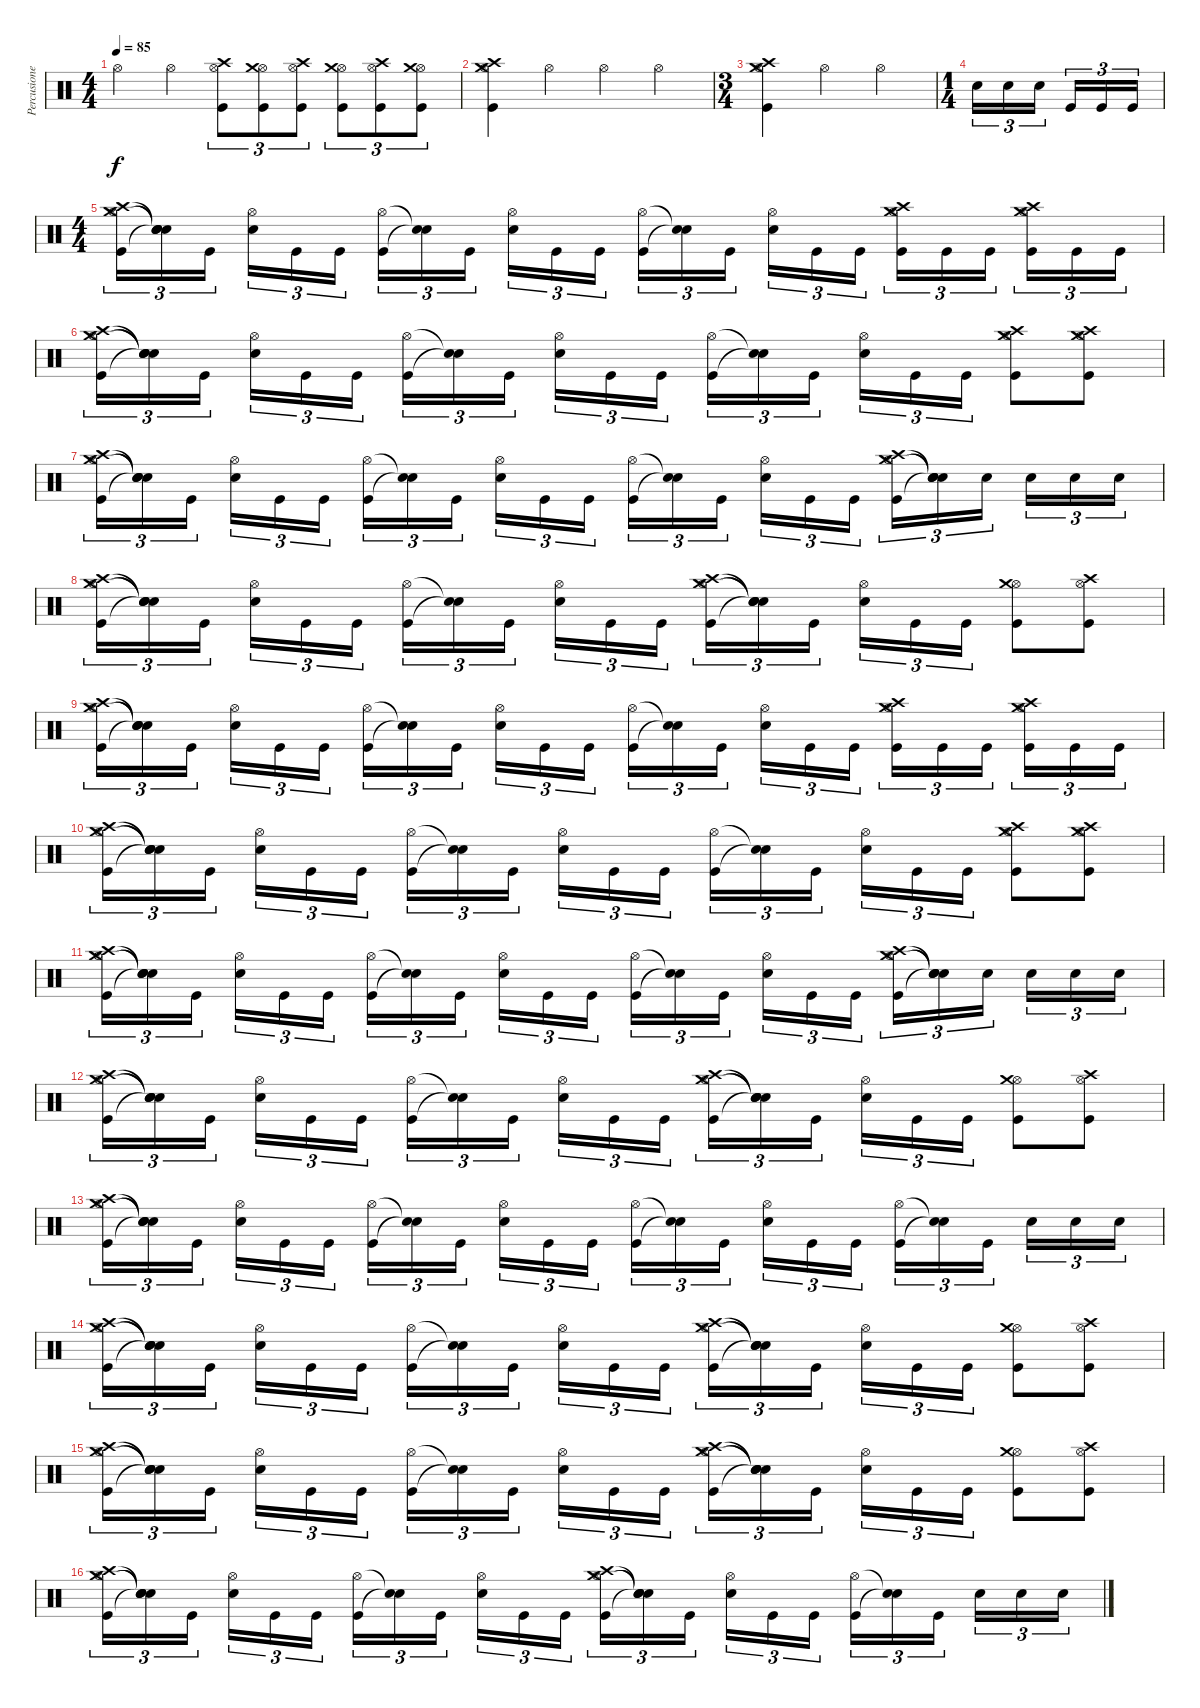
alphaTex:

\track ("Percusiones" "Percusione") {instrument percussion}
\staff {score}
\articulation defaults
\ts (4 4)
\tempo 85
\clef neutral
\ks c "Hi-Hat (open)".4{dy f} "Hi-Hat (open)".4
("Hi-Hat (open)" "Crash high (hit)" "Kick (hit)").8{tu (3 2)} ("Hi-Hat (open)" "Crash medium (hit)" "Kick (hit)").8{tu (3 2)} ("Hi-Hat (open)" "Crash high (hit)" "Kick (hit)").8{tu (3 2)} ("Hi-Hat (open)" "Crash medium (hit)" "Kick (hit)").8{tu (3 2)} ("Hi-Hat (open)" "Crash high (hit)" "Kick (hit)").8{tu (3 2)} ("Hi-Hat (open)" "Crash medium (hit)" "Kick (hit)").8{tu (3 2)} |
("Hi-Hat (open)" "Crash medium (hit)" "Crash high (hit)" "Kick (hit)").4 "Hi-Hat (open)".4 "Hi-Hat (open)".4 "Hi-Hat (open)".4 |
\ts (3 4)
("Hi-Hat (open)" "Crash medium (hit)" "Crash high (hit)" "Kick (hit)").4 "Hi-Hat (open)".4 "Hi-Hat (open)".4 |
\ts (1 4)
"Electric Snare (hit)".16{tu (3 2)} "Electric Snare (hit)".16{tu (3 2)} "Electric Snare (hit)".16{tu (3 2)} "Kick (hit)".16{tu (3 2)} "Kick (hit)".16{tu (3 2)} "Kick (hit)".16{tu (3 2)} |
\ts (4 4)
("Hi-Hat (open)" "Crash high (hit)" "Crash medium (hit)" "Kick (hit)").16{tu (3 2)} ("Snare (hit)"{t} "Snare (hit)"{t} "Snare (hit)"{t} "Snare (hit)"{t}).16{tu (3 2)} "Kick (hit)".16{tu (3 2)} ("Hi-Hat (open)" "Electric Snare (hit)").16{tu (3 2)} "Kick (hit)".16{tu (3 2)} "Kick (hit)".16{tu (3 2)} ("Hi-Hat (open)" "Kick (hit)").16{tu (3 2)} ("Snare (hit)"{t} "Snare (hit)"{t}).16{tu (3 2)} "Kick (hit)".16{tu (3 2)} ("Hi-Hat (open)" "Electric Snare (hit)").16{tu (3 2)} "Kick (hit)".16{tu (3 2)} "Kick (hit)".16{tu (3 2)} ("Hi-Hat (open)" "Kick (hit)").16{tu (3 2)} ("Snare (hit)"{t} "Snare (hit)"{t}).16{tu (3 2)} "Kick (hit)".16{tu (3 2)} ("Hi-Hat (open)" "Electric Snare (hit)").16{tu (3 2)} "Kick (hit)".16{tu (3 2)} "Kick (hit)".16{tu (3 2)} ("Hi-Hat (open)" "Crash medium (hit)" "Crash high (hit)" "Kick (hit)").16{tu (3 2)} "Kick (hit)".16{tu (3 2)} "Kick (hit)".16{tu (3 2)} ("Hi-Hat (open)" "Crash high (hit)" "Crash medium (hit)" "Kick (hit)").16{tu (3 2)} "Kick (hit)".16{tu (3 2)} "Kick (hit)".16{tu (3 2)} |
("Hi-Hat (open)" "Crash high (hit)" "Crash medium (hit)" "Kick (hit)").16{tu (3 2)} ("Snare (hit)"{t} "Snare (hit)"{t} "Snare (hit)"{t} "Snare (hit)"{t}).16{tu (3 2)} "Kick (hit)".16{tu (3 2)} ("Hi-Hat (open)" "Electric Snare (hit)").16{tu (3 2)} "Kick (hit)".16{tu (3 2)} "Kick (hit)".16{tu (3 2)} ("Hi-Hat (open)" "Kick (hit)").16{tu (3 2)} ("Snare (hit)"{t} "Snare (hit)"{t}).16{tu (3 2)} "Kick (hit)".16{tu (3 2)} ("Hi-Hat (open)" "Electric Snare (hit)").16{tu (3 2)} "Kick (hit)".16{tu (3 2)} "Kick (hit)".16{tu (3 2)} ("Hi-Hat (open)" "Kick (hit)").16{tu (3 2)} ("Snare (hit)"{t} "Snare (hit)"{t}).16{tu (3 2)} "Kick (hit)".16{tu (3 2)} ("Hi-Hat (open)" "Electric Snare (hit)").16{tu (3 2)} "Kick (hit)".16{tu (3 2)} "Kick (hit)".16{tu (3 2)} ("Hi-Hat (open)" "Crash medium (hit)" "Crash high (hit)" "Kick (hit)").8 ("Hi-Hat (open)" "Crash high (hit)" "Crash medium (hit)" "Kick (hit)").8 |
("Hi-Hat (open)" "Crash high (hit)" "Crash medium (hit)" "Kick (hit)").16{tu (3 2)} ("Snare (hit)"{t} "Snare (hit)"{t} "Snare (hit)"{t} "Snare (hit)"{t}).16{tu (3 2)} "Kick (hit)".16{tu (3 2)} ("Hi-Hat (open)" "Electric Snare (hit)").16{tu (3 2)} "Kick (hit)".16{tu (3 2)} "Kick (hit)".16{tu (3 2)} ("Hi-Hat (open)" "Kick (hit)").16{tu (3 2)} ("Snare (hit)"{t} "Snare (hit)"{t}).16{tu (3 2)} "Kick (hit)".16{tu (3 2)} ("Hi-Hat (open)" "Electric Snare (hit)").16{tu (3 2)} "Kick (hit)".16{tu (3 2)} "Kick (hit)".16{tu (3 2)} ("Hi-Hat (open)" "Kick (hit)").16{tu (3 2)} ("Snare (hit)"{t} "Snare (hit)"{t}).16{tu (3 2)} "Kick (hit)".16{tu (3 2)} ("Hi-Hat (open)" "Electric Snare (hit)").16{tu (3 2)} "Kick (hit)".16{tu (3 2)} "Kick (hit)".16{tu (3 2)} ("Hi-Hat (open)" "Crash medium (hit)" "Crash high (hit)" "Kick (hit)").16{tu (3 2)} ("Snare (hit)"{t} "Snare (hit)"{t} "Snare (hit)"{t} "Snare (hit)"{t}).16{tu (3 2)} "Electric Snare (hit)".16{tu (3 2)} "Electric Snare (hit)".16{tu (3 2)} "Electric Snare (hit)".16{tu (3 2)} "Electric Snare (hit)".16{tu (3 2)} |
("Hi-Hat (open)" "Crash high (hit)" "Crash medium (hit)" "Kick (hit)").16{tu (3 2)} ("Snare (hit)"{t} "Snare (hit)"{t} "Snare (hit)"{t} "Snare (hit)"{t}).16{tu (3 2)} "Kick (hit)".16{tu (3 2)} ("Hi-Hat (open)" "Electric Snare (hit)").16{tu (3 2)} "Kick (hit)".16{tu (3 2)} "Kick (hit)".16{tu (3 2)} ("Hi-Hat (open)" "Kick (hit)").16{tu (3 2)} ("Snare (hit)"{t} "Snare (hit)"{t}).16{tu (3 2)} "Kick (hit)".16{tu (3 2)} ("Hi-Hat (open)" "Electric Snare (hit)").16{tu (3 2)} "Kick (hit)".16{tu (3 2)} "Kick (hit)".16{tu (3 2)} ("Hi-Hat (open)" "Crash high (hit)" "Crash medium (hit)" "Kick (hit)").16{tu (3 2)} ("Snare (hit)"{t} "Snare (hit)"{t} "Snare (hit)"{t} "Snare (hit)"{t}).16{tu (3 2)} "Kick (hit)".16{tu (3 2)} ("Hi-Hat (open)" "Electric Snare (hit)").16{tu (3 2)} "Kick (hit)".16{tu (3 2)} "Kick (hit)".16{tu (3 2)} ("Hi-Hat (open)" "Crash medium (hit)" "Kick (hit)").8 ("Hi-Hat (open)" "Crash high (hit)" "Kick (hit)").8 |
("Hi-Hat (open)" "Crash high (hit)" "Crash medium (hit)" "Kick (hit)").16{tu (3 2)} ("Snare (hit)"{t} "Snare (hit)"{t} "Snare (hit)"{t} "Snare (hit)"{t}).16{tu (3 2)} "Kick (hit)".16{tu (3 2)} ("Hi-Hat (open)" "Electric Snare (hit)").16{tu (3 2)} "Kick (hit)".16{tu (3 2)} "Kick (hit)".16{tu (3 2)} ("Hi-Hat (open)" "Kick (hit)").16{tu (3 2)} ("Snare (hit)"{t} "Snare (hit)"{t}).16{tu (3 2)} "Kick (hit)".16{tu (3 2)} ("Hi-Hat (open)" "Electric Snare (hit)").16{tu (3 2)} "Kick (hit)".16{tu (3 2)} "Kick (hit)".16{tu (3 2)} ("Hi-Hat (open)" "Kick (hit)").16{tu (3 2)} ("Snare (hit)"{t} "Snare (hit)"{t}).16{tu (3 2)} "Kick (hit)".16{tu (3 2)} ("Hi-Hat (open)" "Electric Snare (hit)").16{tu (3 2)} "Kick (hit)".16{tu (3 2)} "Kick (hit)".16{tu (3 2)} ("Hi-Hat (open)" "Crash medium (hit)" "Crash high (hit)" "Kick (hit)").16{tu (3 2)} "Kick (hit)".16{tu (3 2)} "Kick (hit)".16{tu (3 2)} ("Hi-Hat (open)" "Crash high (hit)" "Crash medium (hit)" "Kick (hit)").16{tu (3 2)} "Kick (hit)".16{tu (3 2)} "Kick (hit)".16{tu (3 2)} |
("Hi-Hat (open)" "Crash high (hit)" "Crash medium (hit)" "Kick (hit)").16{tu (3 2)} ("Snare (hit)"{t} "Snare (hit)"{t} "Snare (hit)"{t} "Snare (hit)"{t}).16{tu (3 2)} "Kick (hit)".16{tu (3 2)} ("Hi-Hat (open)" "Electric Snare (hit)").16{tu (3 2)} "Kick (hit)".16{tu (3 2)} "Kick (hit)".16{tu (3 2)} ("Hi-Hat (open)" "Kick (hit)").16{tu (3 2)} ("Snare (hit)"{t} "Snare (hit)"{t}).16{tu (3 2)} "Kick (hit)".16{tu (3 2)} ("Hi-Hat (open)" "Electric Snare (hit)").16{tu (3 2)} "Kick (hit)".16{tu (3 2)} "Kick (hit)".16{tu (3 2)} ("Hi-Hat (open)" "Kick (hit)").16{tu (3 2)} ("Snare (hit)"{t} "Snare (hit)"{t}).16{tu (3 2)} "Kick (hit)".16{tu (3 2)} ("Hi-Hat (open)" "Electric Snare (hit)").16{tu (3 2)} "Kick (hit)".16{tu (3 2)} "Kick (hit)".16{tu (3 2)} ("Hi-Hat (open)" "Crash medium (hit)" "Crash high (hit)" "Kick (hit)").8 ("Hi-Hat (open)" "Crash high (hit)" "Crash medium (hit)" "Kick (hit)").8 |
("Hi-Hat (open)" "Crash high (hit)" "Crash medium (hit)" "Kick (hit)").16{tu (3 2)} ("Snare (hit)"{t} "Snare (hit)"{t} "Snare (hit)"{t} "Snare (hit)"{t}).16{tu (3 2)} "Kick (hit)".16{tu (3 2)} ("Hi-Hat (open)" "Electric Snare (hit)").16{tu (3 2)} "Kick (hit)".16{tu (3 2)} "Kick (hit)".16{tu (3 2)} ("Hi-Hat (open)" "Kick (hit)").16{tu (3 2)} ("Snare (hit)"{t} "Snare (hit)"{t}).16{tu (3 2)} "Kick (hit)".16{tu (3 2)} ("Hi-Hat (open)" "Electric Snare (hit)").16{tu (3 2)} "Kick (hit)".16{tu (3 2)} "Kick (hit)".16{tu (3 2)} ("Hi-Hat (open)" "Kick (hit)").16{tu (3 2)} ("Snare (hit)"{t} "Snare (hit)"{t}).16{tu (3 2)} "Kick (hit)".16{tu (3 2)} ("Hi-Hat (open)" "Electric Snare (hit)").16{tu (3 2)} "Kick (hit)".16{tu (3 2)} "Kick (hit)".16{tu (3 2)} ("Hi-Hat (open)" "Crash medium (hit)" "Crash high (hit)" "Kick (hit)").16{tu (3 2)} ("Snare (hit)"{t} "Snare (hit)"{t} "Snare (hit)"{t} "Snare (hit)"{t}).16{tu (3 2)} "Electric Snare (hit)".16{tu (3 2)} "Electric Snare (hit)".16{tu (3 2)} "Electric Snare (hit)".16{tu (3 2)} "Electric Snare (hit)".16{tu (3 2)} |
("Hi-Hat (open)" "Crash high (hit)" "Crash medium (hit)" "Kick (hit)").16{tu (3 2)} ("Snare (hit)"{t} "Snare (hit)"{t} "Snare (hit)"{t} "Snare (hit)"{t}).16{tu (3 2)} "Kick (hit)".16{tu (3 2)} ("Hi-Hat (open)" "Electric Snare (hit)").16{tu (3 2)} "Kick (hit)".16{tu (3 2)} "Kick (hit)".16{tu (3 2)} ("Hi-Hat (open)" "Kick (hit)").16{tu (3 2)} ("Snare (hit)"{t} "Snare (hit)"{t}).16{tu (3 2)} "Kick (hit)".16{tu (3 2)} ("Hi-Hat (open)" "Electric Snare (hit)").16{tu (3 2)} "Kick (hit)".16{tu (3 2)} "Kick (hit)".16{tu (3 2)} ("Hi-Hat (open)" "Crash high (hit)" "Crash medium (hit)" "Kick (hit)").16{tu (3 2)} ("Snare (hit)"{t} "Snare (hit)"{t} "Snare (hit)"{t} "Snare (hit)"{t}).16{tu (3 2)} "Kick (hit)".16{tu (3 2)} ("Hi-Hat (open)" "Electric Snare (hit)").16{tu (3 2)} "Kick (hit)".16{tu (3 2)} "Kick (hit)".16{tu (3 2)} ("Hi-Hat (open)" "Crash medium (hit)" "Kick (hit)").8 ("Hi-Hat (open)" "Crash high (hit)" "Kick (hit)").8 |
("Hi-Hat (open)" "Crash high (hit)" "Crash medium (hit)" "Kick (hit)").16{tu (3 2)} ("Snare (hit)"{t} "Snare (hit)"{t} "Snare (hit)"{t} "Snare (hit)"{t}).16{tu (3 2)} "Kick (hit)".16{tu (3 2)} ("Hi-Hat (open)" "Electric Snare (hit)").16{tu (3 2)} "Kick (hit)".16{tu (3 2)} "Kick (hit)".16{tu (3 2)} ("Hi-Hat (open)" "Kick (hit)").16{tu (3 2)} ("Snare (hit)"{t} "Snare (hit)"{t}).16{tu (3 2)} "Kick (hit)".16{tu (3 2)} ("Hi-Hat (open)" "Electric Snare (hit)").16{tu (3 2)} "Kick (hit)".16{tu (3 2)} "Kick (hit)".16{tu (3 2)} ("Hi-Hat (open)" "Kick (hit)").16{tu (3 2)} ("Snare (hit)"{t} "Snare (hit)"{t}).16{tu (3 2)} "Kick (hit)".16{tu (3 2)} ("Hi-Hat (open)" "Electric Snare (hit)").16{tu (3 2)} "Kick (hit)".16{tu (3 2)} "Kick (hit)".16{tu (3 2)} ("Hi-Hat (open)" "Kick (hit)").16{tu (3 2)} ("Snare (hit)"{t} "Snare (hit)"{t}).16{tu (3 2)} "Kick (hit)".16{tu (3 2)} "Electric Snare (hit)".16{tu (3 2)} "Electric Snare (hit)".16{tu (3 2)} "Electric Snare (hit)".16{tu (3 2)} |
("Hi-Hat (open)" "Crash high (hit)" "Crash medium (hit)" "Kick (hit)").16{tu (3 2)} ("Snare (hit)"{t} "Snare (hit)"{t} "Snare (hit)"{t} "Snare (hit)"{t}).16{tu (3 2)} "Kick (hit)".16{tu (3 2)} ("Hi-Hat (open)" "Electric Snare (hit)").16{tu (3 2)} "Kick (hit)".16{tu (3 2)} "Kick (hit)".16{tu (3 2)} ("Hi-Hat (open)" "Kick (hit)").16{tu (3 2)} ("Snare (hit)"{t} "Snare (hit)"{t}).16{tu (3 2)} "Kick (hit)".16{tu (3 2)} ("Hi-Hat (open)" "Electric Snare (hit)").16{tu (3 2)} "Kick (hit)".16{tu (3 2)} "Kick (hit)".16{tu (3 2)} ("Hi-Hat (open)" "Crash high (hit)" "Crash medium (hit)" "Kick (hit)").16{tu (3 2)} ("Snare (hit)"{t} "Snare (hit)"{t} "Snare (hit)"{t} "Snare (hit)"{t}).16{tu (3 2)} "Kick (hit)".16{tu (3 2)} ("Hi-Hat (open)" "Electric Snare (hit)").16{tu (3 2)} "Kick (hit)".16{tu (3 2)} "Kick (hit)".16{tu (3 2)} ("Hi-Hat (open)" "Crash medium (hit)" "Kick (hit)").8 ("Hi-Hat (open)" "Crash high (hit)" "Kick (hit)").8 |
("Hi-Hat (open)" "Crash high (hit)" "Crash medium (hit)" "Kick (hit)").16{tu (3 2)} ("Snare (hit)"{t} "Snare (hit)"{t} "Snare (hit)"{t} "Snare (hit)"{t}).16{tu (3 2)} "Kick (hit)".16{tu (3 2)} ("Hi-Hat (open)" "Electric Snare (hit)").16{tu (3 2)} "Kick (hit)".16{tu (3 2)} "Kick (hit)".16{tu (3 2)} ("Hi-Hat (open)" "Kick (hit)").16{tu (3 2)} ("Snare (hit)"{t} "Snare (hit)"{t}).16{tu (3 2)} "Kick (hit)".16{tu (3 2)} ("Hi-Hat (open)" "Electric Snare (hit)").16{tu (3 2)} "Kick (hit)".16{tu (3 2)} "Kick (hit)".16{tu (3 2)} ("Hi-Hat (open)" "Crash high (hit)" "Crash medium (hit)" "Kick (hit)").16{tu (3 2)} ("Snare (hit)"{t} "Snare (hit)"{t} "Snare (hit)"{t} "Snare (hit)"{t}).16{tu (3 2)} "Kick (hit)".16{tu (3 2)} ("Hi-Hat (open)" "Electric Snare (hit)").16{tu (3 2)} "Kick (hit)".16{tu (3 2)} "Kick (hit)".16{tu (3 2)} ("Hi-Hat (open)" "Crash medium (hit)" "Kick (hit)").8 ("Hi-Hat (open)" "Crash high (hit)" "Kick (hit)").8 |
("Hi-Hat (open)" "Crash high (hit)" "Crash medium (hit)" "Kick (hit)").16{tu (3 2)} ("Snare (hit)"{t} "Snare (hit)"{t} "Snare (hit)"{t} "Snare (hit)"{t}).16{tu (3 2)} "Kick (hit)".16{tu (3 2)} ("Hi-Hat (open)" "Electric Snare (hit)").16{tu (3 2)} "Kick (hit)".16{tu (3 2)} "Kick (hit)".16{tu (3 2)} ("Hi-Hat (open)" "Kick (hit)").16{tu (3 2)} ("Snare (hit)"{t} "Snare (hit)"{t}).16{tu (3 2)} "Kick (hit)".16{tu (3 2)} ("Hi-Hat (open)" "Electric Snare (hit)").16{tu (3 2)} "Kick (hit)".16{tu (3 2)} "Kick (hit)".16{tu (3 2)} ("Hi-Hat (open)" "Crash high (hit)" "Crash medium (hit)" "Kick (hit)").16{tu (3 2)} ("Snare (hit)"{t} "Snare (hit)"{t} "Snare (hit)"{t} "Snare (hit)"{t}).16{tu (3 2)} "Kick (hit)".16{tu (3 2)} ("Hi-Hat (open)" "Electric Snare (hit)").16{tu (3 2)} "Kick (hit)".16{tu (3 2)} "Kick (hit)".16{tu (3 2)} ("Hi-Hat (open)" "Kick (hit)").16{tu (3 2)} ("Snare (hit)"{t} "Snare (hit)"{t}).16{tu (3 2)} "Kick (hit)".16{tu (3 2)} "Electric Snare (hit)".16{tu (3 2)} "Electric Snare (hit)".16{tu (3 2)} "Electric Snare (hit)".16{tu (3 2)}
